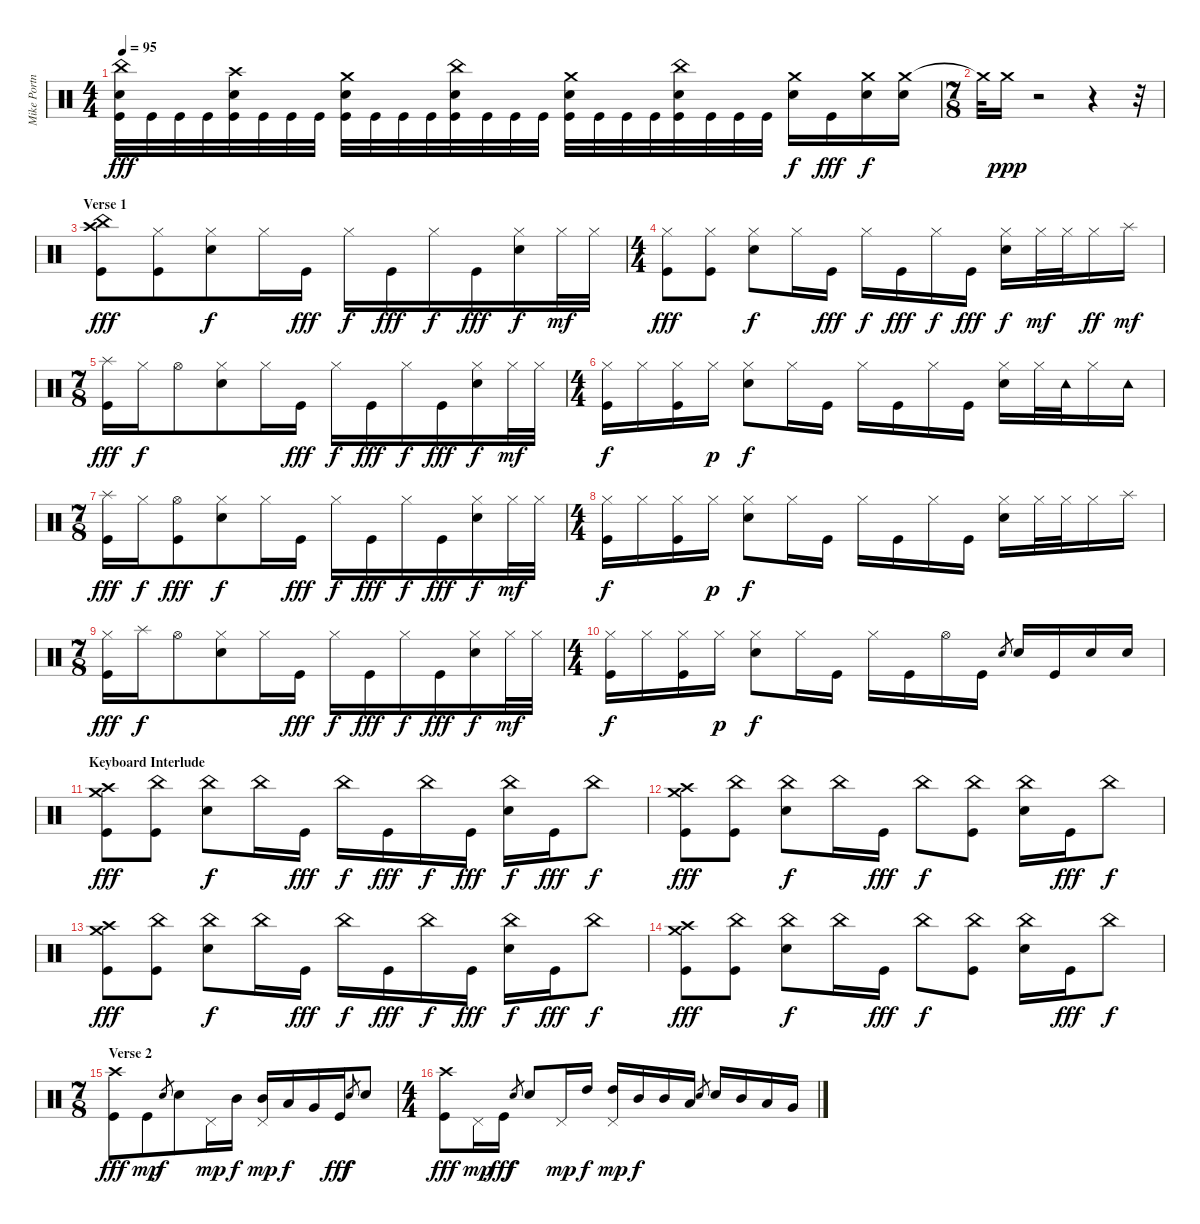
\track ("Mike Portnoy" "Mike Portn") {instrument percussion}
\staff {score}
\articulation defaults
\ts (4 4)
\tempo 95
\clef neutral
\ks c
("China (hit)" "Electric Snare (hit)" "Kick (hit)").32{dy fff} "Kick (hit)".32 "Kick (hit)".32 "Kick (hit)".32 ("Crash high (hit)" "Electric Snare (hit)" "Kick (hit)").32 "Kick (hit)".32 "Kick (hit)".32 "Kick (hit)".32 ("Crash medium (hit)" "Electric Snare (hit)" "Kick (hit)").32 "Kick (hit)".32 "Kick (hit)".32 "Kick (hit)".32 ("China (hit)" "Electric Snare (hit)" "Kick (hit)").32 "Kick (hit)".32 "Kick (hit)".32 "Kick (hit)".32 ("Crash medium (hit)" "Electric Snare (hit)" "Kick (hit)").32 "Kick (hit)".32 "Kick (hit)".32 "Kick (hit)".32 ("China (hit)" "Electric Snare (hit)" "Kick (hit)").32 "Kick (hit)".32 "Kick (hit)".32 "Kick (hit)".32 ("Crash medium (hit)" "Electric Snare (hit)").16{dy f} "Kick (hit)".16{dy fff} ("Crash medium (hit)" "Electric Snare (hit)").16{dy f} ("Crash medium (hit)" "Electric Snare (hit)").16 |
\ts (7 8)
"Crash medium (hit)"{t}.32 "Crash medium (hit)".16{dy ppp} r.2 r.4 r.32 |
\section ("" "Verse 1")
("Crash high (hit)" "China (hit)" "Kick (hit)").8{dy fff} ("Hi-Hat (closed)" "Kick (hit)").8 ("Hi-Hat (closed)" "Electric Snare (hit)").8{dy f} "Hi-Hat (closed)".16 "Kick (hit)".16{dy fff} "Hi-Hat (closed)".16{dy f} "Kick (hit)".16{dy fff} "Hi-Hat (closed)".16{dy f} "Kick (hit)".16{dy fff} ("Hi-Hat (closed)" "Electric Snare (hit)").16{dy f} "Hi-Hat (closed)".32{dy mf} "Hi-Hat (closed)".32 |
\ts (4 4)
("Hi-Hat (closed)" "Kick (hit)").8{dy fff} ("Hi-Hat (closed)" "Kick (hit)").8 ("Hi-Hat (closed)" "Electric Snare (hit)").8{dy f} "Hi-Hat (closed)".16 "Kick (hit)".16{dy fff} "Hi-Hat (closed)".16{dy f} "Kick (hit)".16{dy fff} "Hi-Hat (closed)".16{dy f} "Kick (hit)".16{dy fff} ("Hi-Hat (closed)" "Electric Snare (hit)").16{dy f} "Hi-Hat (closed)".32{dy mf} "Hi-Hat (closed)".32 "Hi-Hat (closed)".16{dy ff} "Splash (hit)".16{dy mf} |
\ts (7 8)
("Splash (hit)" "Kick (hit)").16{dy fff} "Hi-Hat (closed)".16{dy f} "Hi-Hat (open)".8 ("Hi-Hat (closed)" "Electric Snare (hit)").8 "Hi-Hat (closed)".16 "Kick (hit)".16{dy fff} "Hi-Hat (closed)".16{dy f} "Kick (hit)".16{dy fff} "Hi-Hat (closed)".16{dy f} "Kick (hit)".16{dy fff} ("Hi-Hat (closed)" "Electric Snare (hit)").16{dy f} "Hi-Hat (closed)".32{dy mf} "Hi-Hat (closed)".32 |
\ts (4 4)
("Hi-Hat (closed)" "Kick (hit)").16{dy f} "Hi-Hat (closed)".16 ("Hi-Hat (closed)" "Kick (hit)").16 "Hi-Hat (closed)".16{dy p} ("Hi-Hat (closed)" "Electric Snare (hit)").8{dy f} "Hi-Hat (closed)".16 "Kick (hit)".16 "Hi-Hat (closed)".16 "Kick (hit)".16 "Hi-Hat (closed)".16 "Kick (hit)".16 ("Hi-Hat (closed)" "Electric Snare (hit)").16 "Hi-Hat (closed)".32 "Tambourine (hit)".32 "Hi-Hat (closed)".16 "Tambourine (hit)".16 |
\ts (7 8)
("Splash (hit)" "Kick (hit)").16{dy fff} "Hi-Hat (closed)".16{dy f} ("Hi-Hat (open)" "Kick (hit)").8{dy fff} ("Hi-Hat (closed)" "Electric Snare (hit)").8{dy f} "Hi-Hat (closed)".16 "Kick (hit)".16{dy fff} "Hi-Hat (closed)".16{dy f} "Kick (hit)".16{dy fff} "Hi-Hat (closed)".16{dy f} "Kick (hit)".16{dy fff} ("Hi-Hat (closed)" "Electric Snare (hit)").16{dy f} "Hi-Hat (closed)".32{dy mf} "Hi-Hat (closed)".32 |
\ts (4 4)
("Hi-Hat (closed)" "Kick (hit)").16{dy f} "Hi-Hat (closed)".16 ("Hi-Hat (closed)" "Kick (hit)").16 "Hi-Hat (closed)".16{dy p} ("Hi-Hat (closed)" "Electric Snare (hit)").8{dy f} "Hi-Hat (closed)".16 "Kick (hit)".16 "Hi-Hat (closed)".16 "Kick (hit)".16 "Hi-Hat (closed)".16 "Kick (hit)".16 ("Hi-Hat (closed)" "Electric Snare (hit)").16 "Hi-Hat (closed)".32 "Hi-Hat (closed)".32 "Hi-Hat (closed)".16 "Splash (hit)".16 |
\ts (7 8)
("Hi-Hat (closed)" "Kick (hit)").16{dy fff} "Splash (hit)".16{dy f} "Hi-Hat (open)".8 ("Hi-Hat (closed)" "Electric Snare (hit)").8 "Hi-Hat (closed)".16 "Kick (hit)".16{dy fff} "Hi-Hat (closed)".16{dy f} "Kick (hit)".16{dy fff} "Hi-Hat (closed)".16{dy f} "Kick (hit)".16{dy fff} ("Hi-Hat (closed)" "Electric Snare (hit)").16{dy f} "Hi-Hat (closed)".32{dy mf} "Hi-Hat (closed)".32 |
\ts (4 4)
("Hi-Hat (closed)" "Kick (hit)").16{dy f} "Hi-Hat (closed)".16 ("Hi-Hat (closed)" "Kick (hit)").16 "Hi-Hat (closed)".16{dy p} ("Hi-Hat (closed)" "Electric Snare (hit)").8{dy f} "Hi-Hat (closed)".16 "Kick (hit)".16 "Hi-Hat (closed)".16 "Kick (hit)".16 "Hi-Hat (open)".16 "Kick (hit)".16 "Electric Snare (hit)".8{gr} "Electric Snare (hit)".16 "Kick (hit)".16 "Electric Snare (hit)".16 "Electric Snare (hit)".16 |
\section ("" "Keyboard Interlude")
("Crash high (hit)" "Crash medium (hit)" "Kick (hit)").8{dy fff} ("China (hit)" "Kick (hit)").8 ("China (hit)" "Electric Snare (hit)").8{dy f} "China (hit)".16 "Kick (hit)".16{dy fff} "China (hit)".16{dy f} "Kick (hit)".16{dy fff} "China (hit)".16{dy f} "Kick (hit)".16{dy fff} ("China (hit)" "Electric Snare (hit)").16{dy f} "Kick (hit)".16{dy fff} "China (hit)".8{dy f} |
("Crash high (hit)" "Crash medium (hit)" "Kick (hit)").8{dy fff} ("China (hit)" "Kick (hit)").8 ("China (hit)" "Electric Snare (hit)").8{dy f} "China (hit)".16 "Kick (hit)".16{dy fff} "China (hit)".8{dy f} ("China (hit)" "Kick (hit)").8 ("China (hit)" "Electric Snare (hit)").16 "Kick (hit)".16{dy fff} "China (hit)".8{dy f} |
("Crash high (hit)" "Crash medium (hit)" "Kick (hit)").8{dy fff} ("China (hit)" "Kick (hit)").8 ("China (hit)" "Electric Snare (hit)").8{dy f} "China (hit)".16 "Kick (hit)".16{dy fff} "China (hit)".16{dy f} "Kick (hit)".16{dy fff} "China (hit)".16{dy f} "Kick (hit)".16{dy fff} ("China (hit)" "Electric Snare (hit)").16{dy f} "Kick (hit)".16{dy fff} "China (hit)".8{dy f} |
("Crash high (hit)" "Crash medium (hit)" "Kick (hit)").8{dy fff} ("China (hit)" "Kick (hit)").8 ("China (hit)" "Electric Snare (hit)").8{dy f} "China (hit)".16 "Kick (hit)".16{dy fff} "China (hit)".8{dy f} ("China (hit)" "Kick (hit)").8 ("China (hit)" "Electric Snare (hit)").16 "Kick (hit)".16{dy fff} "China (hit)".8{dy f} |
\ts (7 8)
\section ("" "Verse 2")
("Crash high (hit)" "Kick (hit)").8{dy fff} "Kick (hit)".8{dy mp} "Electric Snare (hit)".8{gr dy f} "Electric Snare (hit)".8 "Pedal Hi-Hat (hit)".16{dy mp} "Mid Tom (hit)".16{dy f} ("Mid Tom (hit)" "Pedal Hi-Hat (hit)").16{dy mp} "Low Tom (hit)".16{dy f} "Very Low Tom (hit)".16 "Kick (hit)".16{dy fff} "Electric Snare (hit)".8{gr dy f} "Electric Snare (hit)".8 |
\ts (4 4)
("Crash high (hit)" "Kick (hit)").8{dy fff} "Pedal Hi-Hat (hit)".16{dy mp} "Kick (hit)".16{dy fff} "Electric Snare (hit)".8{gr dy f} "Electric Snare (hit)".8 "Pedal Hi-Hat (hit)".16{dy mp} "High Tom (hit)".16{dy f} ("High Tom (hit)" "Pedal Hi-Hat (hit)").16{dy mp} "Mid Tom (hit)".16{dy f} "Mid Tom (hit)".16 "Low Tom (hit)".16 "Electric Snare (hit)".8{gr} "Electric Snare (hit)".16 "Mid Tom (hit)".16 "Low Tom (hit)".16 "Very Low Tom (hit)".16
